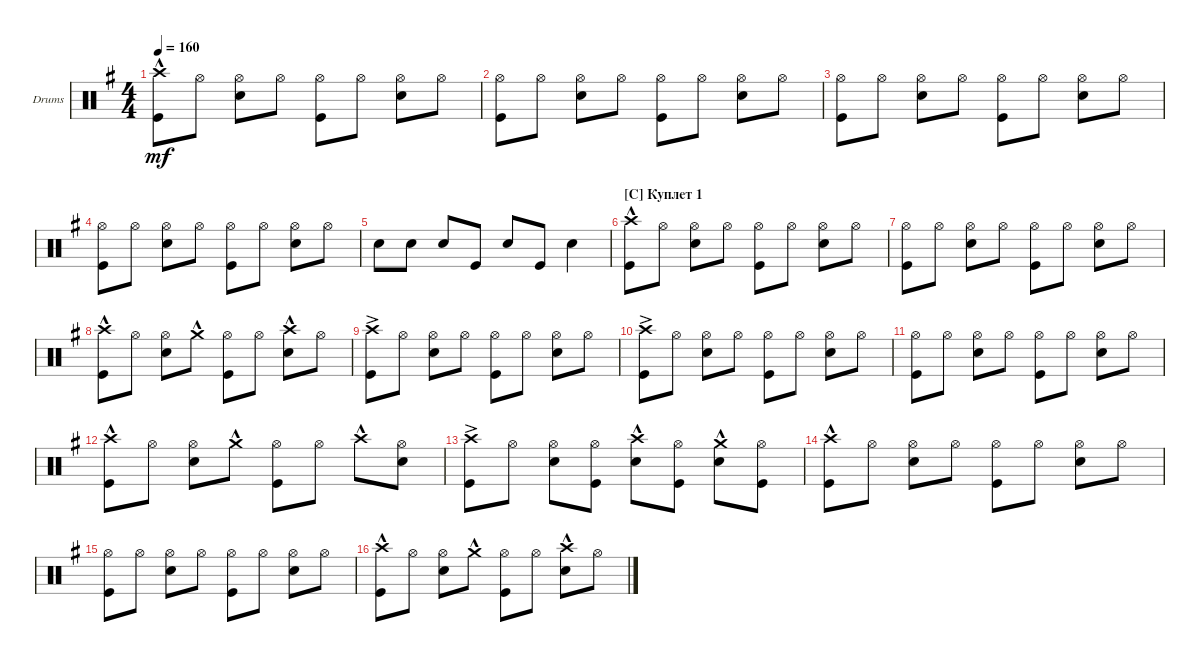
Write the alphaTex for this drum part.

\defaultSystemsLayout 4
\bracketExtendMode groupsimilarinstruments
\firstSystemTrackNameOrientation horizontal
\otherSystemsTrackNameOrientation horizontal
\track ("Drumkit" "Drums") {instrument percussion}
\staff {score}
\articulation defaults
\ts (4 4)
\tempo 160
\clef neutral
\ks eminor
("Kick (hit)" "Crash high (hit)"{hac}).8{dy mf} "Hi-Hat (open)".8 ("Hi-Hat (open)" "Snare (hit) 2").8 "Hi-Hat (open)".8 ("Hi-Hat (open)" "Kick (hit)").8 "Hi-Hat (open)".8 ("Hi-Hat (open)" "Snare (hit) 2").8 "Hi-Hat (open)".8 |
("Hi-Hat (open)" "Kick (hit)").8 "Hi-Hat (open)".8 ("Hi-Hat (open)" "Snare (hit) 2").8 "Hi-Hat (open)".8 ("Hi-Hat (open)" "Kick (hit)").8 "Hi-Hat (open)".8 ("Hi-Hat (open)" "Snare (hit) 2").8 "Hi-Hat (open)".8 |
("Hi-Hat (open)" "Kick (hit)").8 "Hi-Hat (open)".8 ("Hi-Hat (open)" "Snare (hit) 2").8 "Hi-Hat (open)".8 ("Hi-Hat (open)" "Kick (hit)").8 "Hi-Hat (open)".8 ("Hi-Hat (open)" "Snare (hit) 2").8 "Hi-Hat (open)".8 |
("Hi-Hat (open)" "Kick (hit)").8 "Hi-Hat (open)".8 ("Hi-Hat (open)" "Snare (hit) 2").8 "Hi-Hat (open)".8 ("Hi-Hat (open)" "Kick (hit)").8 "Hi-Hat (open)".8 ("Hi-Hat (open)" "Snare (hit) 2").8 "Hi-Hat (open)".8 |
"Snare (hit) 2".8 "Snare (hit) 2".8 "Snare (hit) 2".8 "Kick (hit)".8 "Snare (hit) 2".8 "Kick (hit)".8 "Snare (hit) 2".4 |
\section ("C" "Куплет 1")
("Kick (hit)" "Crash high (hit)"{hac}).8 "Hi-Hat (open)".8 ("Hi-Hat (open)" "Snare (hit) 2").8 "Hi-Hat (open)".8 ("Hi-Hat (open)" "Kick (hit)").8 "Hi-Hat (open)".8 ("Hi-Hat (open)" "Snare (hit) 2").8 "Hi-Hat (open)".8 |
("Hi-Hat (open)" "Kick (hit)").8 "Hi-Hat (open)".8 ("Hi-Hat (open)" "Snare (hit) 2").8 "Hi-Hat (open)".8 ("Hi-Hat (open)" "Kick (hit)").8 "Hi-Hat (open)".8 ("Hi-Hat (open)" "Snare (hit) 2").8 "Hi-Hat (open)".8 |
("Kick (hit)" "Crash high (hit)"{hac}).8 "Hi-Hat (open)".8 ("Hi-Hat (open)" "Snare (hit) 2").8 "Crash medium (hit)"{hac}.8 ("Hi-Hat (open)" "Kick (hit)").8 "Hi-Hat (open)".8 ("Crash high (hit)"{hac} "Snare (hit) 2").8 "Hi-Hat (open)".8 |
("Kick (hit)" "Crash high (hit)"{ac}).8 "Hi-Hat (open)".8 ("Hi-Hat (open)" "Snare (hit) 2").8 "Hi-Hat (open)".8 ("Hi-Hat (open)" "Kick (hit)").8 "Hi-Hat (open)".8 ("Hi-Hat (open)" "Snare (hit) 2").8 "Hi-Hat (open)".8 |
\scale
0.307692 ("Kick (hit)" "Crash high (hit)"{ac}).8 "Hi-Hat (open)".8 ("Hi-Hat (open)" "Snare (hit) 2").8 "Hi-Hat (open)".8 ("Hi-Hat (open)" "Kick (hit)").8 "Hi-Hat (open)".8 ("Hi-Hat (open)" "Snare (hit) 2").8 "Hi-Hat (open)".8 |
\scale
0.239769 ("Hi-Hat (open)" "Kick (hit)").8 "Hi-Hat (open)".8 ("Hi-Hat (open)" "Snare (hit) 2").8 "Hi-Hat (open)".8 ("Hi-Hat (open)" "Kick (hit)").8 "Hi-Hat (open)".8 ("Hi-Hat (open)" "Snare (hit) 2").8 "Hi-Hat (open)".8 |
\scale
0.222169 ("Kick (hit)" "Crash high (hit)"{hac}).8 "Hi-Hat (open)".8 ("Hi-Hat (open)" "Snare (hit) 2").8 "Crash medium (hit)"{hac}.8 ("Hi-Hat (open)" "Kick (hit)").8 "Hi-Hat (open)".8 "Crash high (hit)"{hac}.8 ("Hi-Hat (open)" "Snare (hit) 2").8 |
\scale
0.230769 ("Kick (hit)" "Crash high (hit)"{ac}).8 "Hi-Hat (open)".8 ("Hi-Hat (open)" "Snare (hit) 2").8 ("Hi-Hat (open)" "Kick (hit)").8 ("Snare (hit) 2" "Crash high (hit)"{hac}).8 ("Hi-Hat (open)" "Kick (hit)").8 ("Snare (hit) 2" "Crash medium (hit)"{hac}).8 ("Hi-Hat (open)" "Kick (hit)").8 |
("Kick (hit)" "Crash high (hit)"{hac}).8 "Hi-Hat (open)".8 ("Hi-Hat (open)" "Snare (hit) 2").8 "Hi-Hat (open)".8 ("Hi-Hat (open)" "Kick (hit)").8 "Hi-Hat (open)".8 ("Hi-Hat (open)" "Snare (hit) 2").8 "Hi-Hat (open)".8 |
("Hi-Hat (open)" "Kick (hit)").8 "Hi-Hat (open)".8 ("Hi-Hat (open)" "Snare (hit) 2").8 "Hi-Hat (open)".8 ("Hi-Hat (open)" "Kick (hit)").8 "Hi-Hat (open)".8 ("Hi-Hat (open)" "Snare (hit) 2").8 "Hi-Hat (open)".8 |
("Kick (hit)" "Crash high (hit)"{hac}).8 "Hi-Hat (open)".8 ("Hi-Hat (open)" "Snare (hit) 2").8 "Crash medium (hit)"{hac}.8 ("Hi-Hat (open)" "Kick (hit)").8 "Hi-Hat (open)".8 ("Crash high (hit)"{hac} "Snare (hit) 2").8 "Hi-Hat (open)".8
